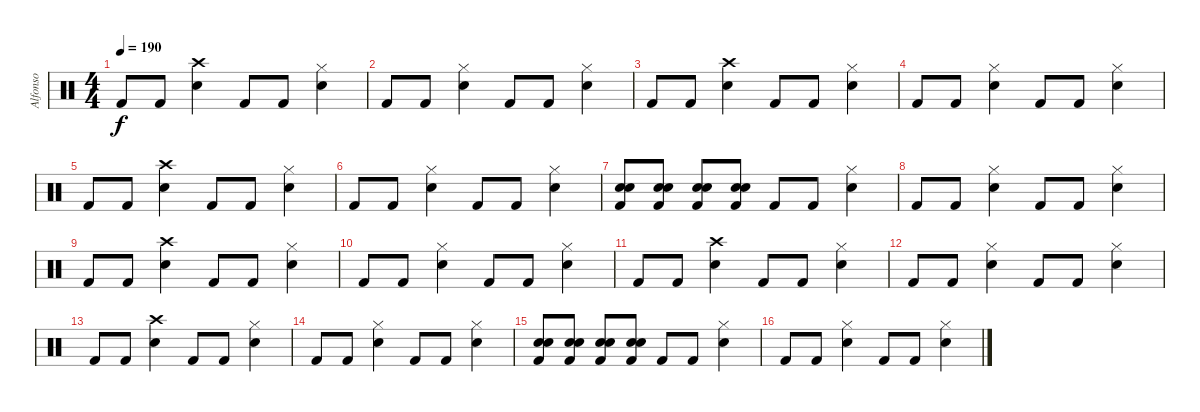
\track ("Alfonso" "Alfonso") {instrument percussion}
\staff {score}
\articulation defaults
\ts (4 4)
\tempo 190
\clef neutral
\ks c "Kick (hit) 2".8{dy f} "Kick (hit) 2".8
("Crash high (hit)" "Electric Snare (hit)").4 "Kick (hit) 2".8 "Kick (hit) 2".8 ("Hi-Hat (closed)" "Electric Snare (hit)").4 |
"Kick (hit) 2".8 "Kick (hit) 2".8 ("Hi-Hat (closed)" "Electric Snare (hit)").4 "Kick (hit) 2".8 "Kick (hit) 2".8 ("Hi-Hat (closed)" "Electric Snare (hit)").4 |
"Kick (hit) 2".8 "Kick (hit) 2".8 ("Crash high (hit)" "Electric Snare (hit)").4 "Kick (hit) 2".8 "Kick (hit) 2".8 ("Hi-Hat (closed)" "Electric Snare (hit)").4 |
"Kick (hit) 2".8 "Kick (hit) 2".8 ("Hi-Hat (closed)" "Electric Snare (hit)").4 "Kick (hit) 2".8 "Kick (hit) 2".8 ("Hi-Hat (closed)" "Electric Snare (hit)").4 |
"Kick (hit) 2".8 "Kick (hit) 2".8 ("Crash high (hit)" "Electric Snare (hit)").4 "Kick (hit) 2".8 "Kick (hit) 2".8 ("Hi-Hat (closed)" "Electric Snare (hit)").4 |
"Kick (hit) 2".8 "Kick (hit) 2".8 ("Hi-Hat (closed)" "Electric Snare (hit)").4 "Kick (hit) 2".8 "Kick (hit) 2".8 ("Hi-Hat (closed)" "Electric Snare (hit)").4 |
("Kick (hit) 2" "Electric Snare (hit)" "Snare (hit) 2").8 ("Kick (hit) 2" "Electric Snare (hit)" "Snare (hit) 2").8 ("Kick (hit) 2" "Electric Snare (hit)" "Snare (hit) 2").8 ("Kick (hit) 2" "Electric Snare (hit)" "Snare (hit) 2").8 "Kick (hit) 2".8 "Kick (hit) 2".8 ("Hi-Hat (closed)" "Electric Snare (hit)").4 |
"Kick (hit) 2".8 "Kick (hit) 2".8 ("Hi-Hat (closed)" "Electric Snare (hit)").4 "Kick (hit) 2".8 "Kick (hit) 2".8 ("Hi-Hat (closed)" "Electric Snare (hit)").4 |
"Kick (hit) 2".8 "Kick (hit) 2".8 ("Crash high (hit)" "Electric Snare (hit)").4 "Kick (hit) 2".8 "Kick (hit) 2".8 ("Hi-Hat (closed)" "Electric Snare (hit)").4 |
"Kick (hit) 2".8 "Kick (hit) 2".8 ("Hi-Hat (closed)" "Electric Snare (hit)").4 "Kick (hit) 2".8 "Kick (hit) 2".8 ("Hi-Hat (closed)" "Electric Snare (hit)").4 |
"Kick (hit) 2".8 "Kick (hit) 2".8 ("Crash high (hit)" "Electric Snare (hit)").4 "Kick (hit) 2".8 "Kick (hit) 2".8 ("Hi-Hat (closed)" "Electric Snare (hit)").4 |
"Kick (hit) 2".8 "Kick (hit) 2".8 ("Hi-Hat (closed)" "Electric Snare (hit)").4 "Kick (hit) 2".8 "Kick (hit) 2".8 ("Hi-Hat (closed)" "Electric Snare (hit)").4 |
"Kick (hit) 2".8 "Kick (hit) 2".8 ("Crash high (hit)" "Electric Snare (hit)").4 "Kick (hit) 2".8 "Kick (hit) 2".8 ("Hi-Hat (closed)" "Electric Snare (hit)").4 |
"Kick (hit) 2".8 "Kick (hit) 2".8 ("Hi-Hat (closed)" "Electric Snare (hit)").4 "Kick (hit) 2".8 "Kick (hit) 2".8 ("Hi-Hat (closed)" "Electric Snare (hit)").4 |
("Kick (hit) 2" "Electric Snare (hit)" "Snare (hit) 2").8 ("Kick (hit) 2" "Electric Snare (hit)" "Snare (hit) 2").8 ("Kick (hit) 2" "Electric Snare (hit)" "Snare (hit) 2").8 ("Kick (hit) 2" "Electric Snare (hit)" "Snare (hit) 2").8 "Kick (hit) 2".8 "Kick (hit) 2".8 ("Hi-Hat (closed)" "Electric Snare (hit)").4 |
"Kick (hit) 2".8 "Kick (hit) 2".8 ("Hi-Hat (closed)" "Electric Snare (hit)").4 "Kick (hit) 2".8 "Kick (hit) 2".8 ("Hi-Hat (closed)" "Electric Snare (hit)").4
